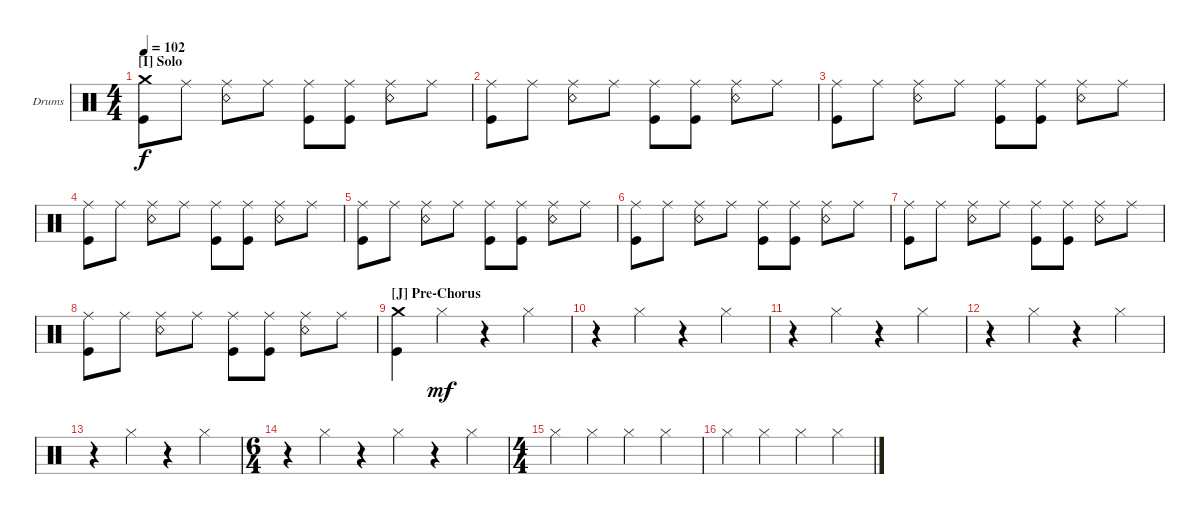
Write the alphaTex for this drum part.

\defaultSystemsLayout 4
\bracketExtendMode groupsimilarinstruments
\firstSystemTrackNameOrientation horizontal
\otherSystemsTrackNameOrientation horizontal
\track ("Drums" "Drums") {instrument percussion}
\staff {score}
\articulation defaults
\ts (4 4)
\section ("I" "Solo")
\tempo 102
\clef neutral
\ks c
("Kick (hit)" "Crash medium (hit)").8{dy f} "Ride (middle)".8 ("Snare (rim shot)" "Ride (middle)").8 "Ride (middle)".8 ("Kick (hit)" "Ride (middle)").8 ("Kick (hit)" "Ride (middle)").8 ("Snare (rim shot)" "Ride (middle)").8 "Ride (middle)".8 |
("Ride (middle)" "Kick (hit)").8 "Ride (middle)".8 ("Ride (middle)" "Snare (rim shot)").8 "Ride (middle)".8 ("Ride (middle)" "Kick (hit)").8 ("Ride (middle)" "Kick (hit)").8 ("Ride (middle)" "Snare (rim shot)").8 "Ride (middle)".8 |
("Ride (middle)" "Kick (hit)").8 "Ride (middle)".8 ("Ride (middle)" "Snare (rim shot)").8 "Ride (middle)".8 ("Ride (middle)" "Kick (hit)").8 ("Ride (middle)" "Kick (hit)").8 ("Ride (middle)" "Snare (rim shot)").8 "Ride (middle)".8 |
("Ride (middle)" "Kick (hit)").8 "Ride (middle)".8 ("Ride (middle)" "Snare (rim shot)").8 "Ride (middle)".8 ("Ride (middle)" "Kick (hit)").8 ("Ride (middle)" "Kick (hit)").8 ("Ride (middle)" "Snare (rim shot)").8 "Ride (middle)".8 |
("Ride (middle)" "Kick (hit)").8 "Ride (middle)".8 ("Ride (middle)" "Snare (rim shot)").8 "Ride (middle)".8 ("Ride (middle)" "Kick (hit)").8 ("Ride (middle)" "Kick (hit)").8 ("Ride (middle)" "Snare (rim shot)").8 "Ride (middle)".8 |
("Ride (middle)" "Kick (hit)").8 "Ride (middle)".8 ("Ride (middle)" "Snare (rim shot)").8 "Ride (middle)".8 ("Ride (middle)" "Kick (hit)").8 ("Ride (middle)" "Kick (hit)").8 ("Ride (middle)" "Snare (rim shot)").8 "Ride (middle)".8 |
("Ride (middle)" "Kick (hit)").8 "Ride (middle)".8 ("Ride (middle)" "Snare (rim shot)").8 "Ride (middle)".8 ("Ride (middle)" "Kick (hit)").8 ("Ride (middle)" "Kick (hit)").8 ("Ride (middle)" "Snare (rim shot)").8 "Ride (middle)".8 |
("Ride (middle)" "Kick (hit)").8 "Ride (middle)".8 ("Ride (middle)" "Snare (rim shot)").8 "Ride (middle)".8 ("Ride (middle)" "Kick (hit)").8 ("Ride (middle)" "Kick (hit)").8 ("Ride (middle)" "Snare (rim shot)").8 "Ride (middle)".8 |
\section ("J" "Pre-Chorus")
("Kick (hit)" "Crash medium (hit)").4 "Hi-Hat (closed)".4{dy mf} r.4 "Hi-Hat (closed)".4 |
r.4 "Hi-Hat (closed)".4 r.4 "Hi-Hat (closed)".4 |
r.4 "Hi-Hat (closed)".4 r.4 "Hi-Hat (closed)".4 |
r.4 "Hi-Hat (closed)".4 r.4 "Hi-Hat (closed)".4 |
r.4 "Hi-Hat (closed)".4 r.4 "Hi-Hat (closed)".4 |
\ts (6 4)
r.4 "Hi-Hat (closed)".4 r.4 "Hi-Hat (closed)".4 r.4 "Hi-Hat (closed)".4 |
\ts (4 4)
"Hi-Hat (closed)".4 "Hi-Hat (closed)".4 "Hi-Hat (closed)".4 "Hi-Hat (closed)".4 |
"Hi-Hat (closed)".4 "Hi-Hat (closed)".4 "Hi-Hat (closed)".4 "Hi-Hat (closed)".4
